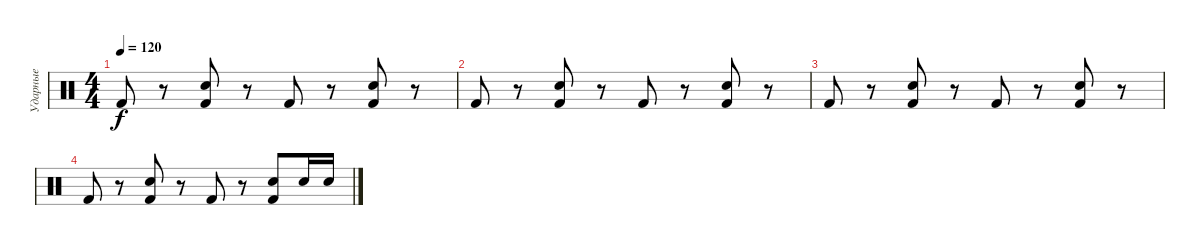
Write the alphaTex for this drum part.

\track ("Ударные" "Ударные") {instrument percussion}
\staff {score}
\articulation defaults
\ts (4 4)
\tempo 120
\clef neutral
\ks c "Kick (hit) 2".8{dy f}
r.8 ("Snare (hit) 2" "Kick (hit) 2").8 r.8 "Kick (hit) 2".8 r.8 ("Snare (hit) 2" "Kick (hit) 2").8 r.8 |
"Kick (hit) 2".8 r.8 ("Snare (hit) 2" "Kick (hit) 2").8 r.8 "Kick (hit) 2".8 r.8 ("Snare (hit) 2" "Kick (hit) 2").8 r.8 |
"Kick (hit) 2".8 r.8 ("Snare (hit) 2" "Kick (hit) 2").8 r.8 "Kick (hit) 2".8 r.8 ("Snare (hit) 2" "Kick (hit) 2").8 r.8 |
"Kick (hit) 2".8 r.8 ("Snare (hit) 2" "Kick (hit) 2").8 r.8 "Kick (hit) 2".8 r.8 ("Snare (hit) 2" "Kick (hit) 2").8 "Snare (hit) 2".16 "Snare (hit) 2".16
